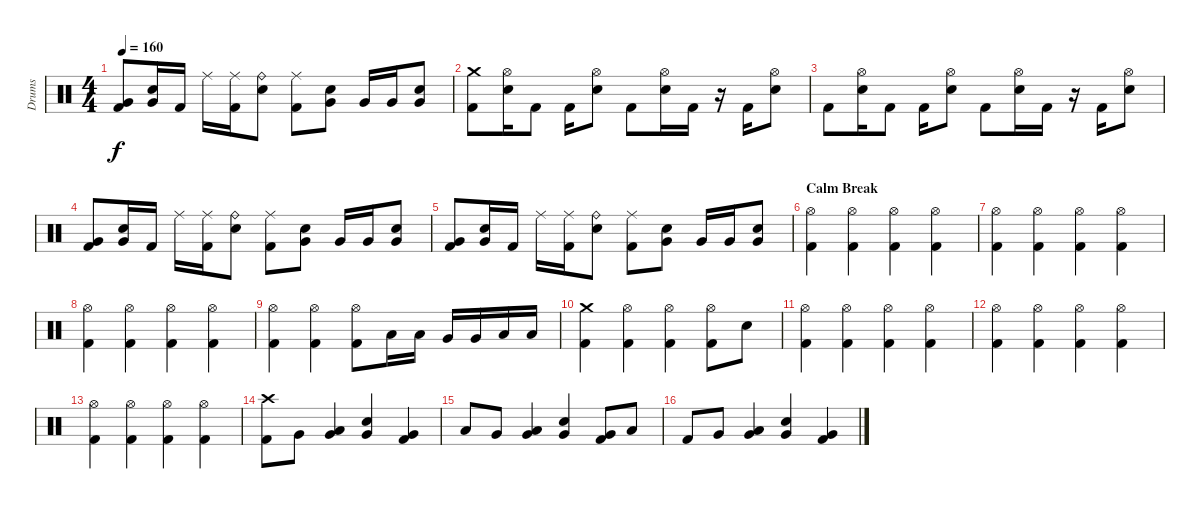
\track ("Drums" "Drums") {instrument percussion}
\staff {score}
\articulation defaults
\ts (4 4)
\tempo 160
\clef neutral
\ks c
("Kick (hit) 2" "Very Low Tom (hit)").8{dy f} ("Electric Snare (hit)" "Very Low Tom (hit)").16 "Kick (hit) 2".16 "Ride (middle)".16 ("Kick (hit) 2" "Ride (middle)").16 ("Electric Snare (hit)" "Ride (bell)").8 ("Kick (hit) 2" "Ride (middle)").8 ("Electric Snare (hit)" "Very Low Tom (hit)").8 "Very Low Tom (hit)".16 "Very Low Tom (hit)".16 ("Electric Snare (hit)" "Very Low Tom (hit)").8 |
("Kick (hit) 2" "Crash medium (hit)").8 ("Electric Snare (hit)" "Hi-Hat (open)").16 "Kick (hit) 2".8 "Kick (hit) 2".16 ("Electric Snare (hit)" "Hi-Hat (open)").8 "Kick (hit) 2".8 ("Electric Snare (hit)" "Hi-Hat (open)").16 "Kick (hit) 2".16 r.16 "Kick (hit) 2".16 ("Electric Snare (hit)" "Hi-Hat (open)").8 |
"Kick (hit) 2".8 ("Electric Snare (hit)" "Hi-Hat (open)").16 "Kick (hit) 2".8 "Kick (hit) 2".16 ("Electric Snare (hit)" "Hi-Hat (open)").8 "Kick (hit) 2".8 ("Electric Snare (hit)" "Hi-Hat (open)").16 "Kick (hit) 2".16 r.16 "Kick (hit) 2".16 ("Electric Snare (hit)" "Hi-Hat (open)").8 |
("Kick (hit) 2" "Very Low Tom (hit)").8 ("Electric Snare (hit)" "Very Low Tom (hit)").16 "Kick (hit) 2".16 "Ride (middle)".16 ("Kick (hit) 2" "Ride (middle)").16 ("Electric Snare (hit)" "Ride (bell)").8 ("Kick (hit) 2" "Ride (middle)").8 ("Electric Snare (hit)" "Very Low Tom (hit)").8 "Very Low Tom (hit)".16 "Very Low Tom (hit)".16 ("Electric Snare (hit)" "Very Low Tom (hit)").8 |
("Kick (hit) 2" "Very Low Tom (hit)").8 ("Electric Snare (hit)" "Very Low Tom (hit)").16 "Kick (hit) 2".16 "Ride (middle)".16 ("Kick (hit) 2" "Ride (middle)").16 ("Electric Snare (hit)" "Ride (bell)").8 ("Kick (hit) 2" "Ride (middle)").8 ("Electric Snare (hit)" "Very Low Tom (hit)").8 "Very Low Tom (hit)".16 "Very Low Tom (hit)".16 ("Electric Snare (hit)" "Very Low Tom (hit)").8 |
\section ("" "Calm Break")
("Kick (hit) 2" "Hi-Hat (open)").4 ("Kick (hit) 2" "Hi-Hat (open)").4 ("Kick (hit) 2" "Hi-Hat (open)").4 ("Kick (hit) 2" "Hi-Hat (open)").4 |
("Kick (hit) 2" "Hi-Hat (open)").4 ("Kick (hit) 2" "Hi-Hat (open)").4 ("Kick (hit) 2" "Hi-Hat (open)").4 ("Kick (hit) 2" "Hi-Hat (open)").4 |
("Kick (hit) 2" "Hi-Hat (open)").4 ("Kick (hit) 2" "Hi-Hat (open)").4 ("Kick (hit) 2" "Hi-Hat (open)").4 ("Kick (hit) 2" "Hi-Hat (open)").4 |
("Kick (hit) 2" "Hi-Hat (open)").4 ("Kick (hit) 2" "Hi-Hat (open)").4 ("Kick (hit) 2" "Hi-Hat (open)").8 "Low Tom (hit)".16 "Low Tom (hit)".16 "Very Low Tom (hit)".16 "Very Low Tom (hit)".16 "Low Floor Tom (hit)".16 "Low Floor Tom (hit)".16 |
("Kick (hit) 2" "Crash medium (hit)").4 ("Kick (hit) 2" "Hi-Hat (open)").4 ("Kick (hit) 2" "Hi-Hat (open)").4 ("Kick (hit) 2" "Hi-Hat (open)").8 "Electric Snare (hit)".8 |
("Kick (hit) 2" "Hi-Hat (open)").4 ("Kick (hit) 2" "Hi-Hat (open)").4 ("Kick (hit) 2" "Hi-Hat (open)").4 ("Kick (hit) 2" "Hi-Hat (open)").4 |
("Kick (hit) 2" "Hi-Hat (open)").4 ("Kick (hit) 2" "Hi-Hat (open)").4 ("Kick (hit) 2" "Hi-Hat (open)").4 ("Kick (hit) 2" "Hi-Hat (open)").4 |
("Kick (hit) 2" "Hi-Hat (open)").4 ("Kick (hit) 2" "Hi-Hat (open)").4 ("Kick (hit) 2" "Hi-Hat (open)").4 ("Kick (hit) 2" "Hi-Hat (open)").4 |
("Kick (hit) 2" "Crash high (hit)").8 "Very Low Tom (hit)".8 ("Very Low Tom (hit)" "Low Tom (hit)").4 ("Very Low Tom (hit)" "Electric Snare (hit)").4 ("Kick (hit) 2" "Very Low Tom (hit)").4 |
"Low Tom (hit)".8 "Very Low Tom (hit)".8 ("Very Low Tom (hit)" "Low Tom (hit)").4 ("Very Low Tom (hit)" "Electric Snare (hit)").4 ("Kick (hit) 2" "Very Low Tom (hit)").8 "Low Floor Tom (hit)".8 |
"Kick (hit) 2".8 "Very Low Tom (hit)".8 ("Very Low Tom (hit)" "Low Tom (hit)").4 ("Very Low Tom (hit)" "Electric Snare (hit)").4 ("Kick (hit) 2" "Very Low Tom (hit)").4
